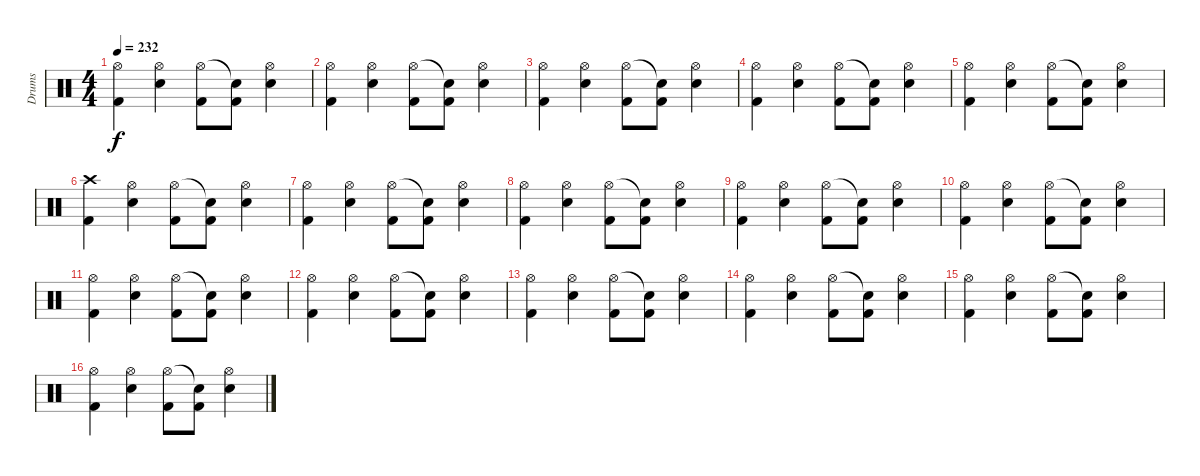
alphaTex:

\track ("Drums" "Drums") {instrument percussion}
\staff {score}
\articulation defaults
\ts (4 4)
\tempo 232
\clef neutral
\ks c
("Hi-Hat (open)" "Kick (hit) 2").4{dy f} ("Hi-Hat (open)" "Snare (hit) 2").4 ("Hi-Hat (open)" "Kick (hit) 2").8 ("Snare (hit)"{t} "Kick (hit) 2").8 ("Hi-Hat (open)" "Snare (hit) 2").4 |
("Hi-Hat (open)" "Kick (hit) 2").4 ("Hi-Hat (open)" "Snare (hit) 2").4 ("Hi-Hat (open)" "Kick (hit) 2").8 ("Snare (hit)"{t} "Kick (hit) 2").8 ("Hi-Hat (open)" "Snare (hit) 2").4 |
("Hi-Hat (open)" "Kick (hit) 2").4 ("Hi-Hat (open)" "Snare (hit) 2").4 ("Hi-Hat (open)" "Kick (hit) 2").8 ("Snare (hit)"{t} "Kick (hit) 2").8 ("Hi-Hat (open)" "Snare (hit) 2").4 |
("Hi-Hat (open)" "Kick (hit) 2").4 ("Hi-Hat (open)" "Snare (hit) 2").4 ("Hi-Hat (open)" "Kick (hit) 2").8 ("Snare (hit)"{t} "Kick (hit) 2").8 ("Hi-Hat (open)" "Snare (hit) 2").4 |
("Hi-Hat (open)" "Kick (hit) 2").4 ("Hi-Hat (open)" "Snare (hit) 2").4 ("Hi-Hat (open)" "Kick (hit) 2").8 ("Snare (hit)"{t} "Kick (hit) 2").8 ("Hi-Hat (open)" "Snare (hit) 2").4 |
("Crash high (hit)" "Kick (hit) 2").4 ("Hi-Hat (open)" "Snare (hit) 2").4 ("Hi-Hat (open)" "Kick (hit) 2").8 ("Snare (hit)"{t} "Kick (hit) 2").8 ("Hi-Hat (open)" "Snare (hit) 2").4 |
("Hi-Hat (open)" "Kick (hit) 2").4 ("Hi-Hat (open)" "Snare (hit) 2").4 ("Hi-Hat (open)" "Kick (hit) 2").8 ("Snare (hit)"{t} "Kick (hit) 2").8 ("Hi-Hat (open)" "Snare (hit) 2").4 |
("Hi-Hat (open)" "Kick (hit) 2").4 ("Hi-Hat (open)" "Snare (hit) 2").4 ("Hi-Hat (open)" "Kick (hit) 2").8 ("Snare (hit)"{t} "Kick (hit) 2").8 ("Hi-Hat (open)" "Snare (hit) 2").4 |
("Hi-Hat (open)" "Kick (hit) 2").4 ("Hi-Hat (open)" "Snare (hit) 2").4 ("Hi-Hat (open)" "Kick (hit) 2").8 ("Snare (hit)"{t} "Kick (hit) 2").8 ("Hi-Hat (open)" "Snare (hit) 2").4 |
("Hi-Hat (open)" "Kick (hit) 2").4 ("Hi-Hat (open)" "Snare (hit) 2").4 ("Hi-Hat (open)" "Kick (hit) 2").8 ("Snare (hit)"{t} "Kick (hit) 2").8 ("Hi-Hat (open)" "Snare (hit) 2").4 |
("Hi-Hat (open)" "Kick (hit) 2").4 ("Hi-Hat (open)" "Snare (hit) 2").4 ("Hi-Hat (open)" "Kick (hit) 2").8 ("Snare (hit)"{t} "Kick (hit) 2").8 ("Hi-Hat (open)" "Snare (hit) 2").4 |
("Hi-Hat (open)" "Kick (hit) 2").4 ("Hi-Hat (open)" "Snare (hit) 2").4 ("Hi-Hat (open)" "Kick (hit) 2").8 ("Snare (hit)"{t} "Kick (hit) 2").8 ("Hi-Hat (open)" "Snare (hit) 2").4 |
("Hi-Hat (open)" "Kick (hit) 2").4 ("Hi-Hat (open)" "Snare (hit) 2").4 ("Hi-Hat (open)" "Kick (hit) 2").8 ("Snare (hit)"{t} "Kick (hit) 2").8 ("Hi-Hat (open)" "Snare (hit) 2").4 |
("Hi-Hat (open)" "Kick (hit) 2").4 ("Hi-Hat (open)" "Snare (hit) 2").4 ("Hi-Hat (open)" "Kick (hit) 2").8 ("Snare (hit)"{t} "Kick (hit) 2").8 ("Hi-Hat (open)" "Snare (hit) 2").4 |
("Hi-Hat (open)" "Kick (hit) 2").4 ("Hi-Hat (open)" "Snare (hit) 2").4 ("Hi-Hat (open)" "Kick (hit) 2").8 ("Snare (hit)"{t} "Kick (hit) 2").8 ("Hi-Hat (open)" "Snare (hit) 2").4 |
("Hi-Hat (open)" "Kick (hit) 2").4 ("Hi-Hat (open)" "Snare (hit) 2").4 ("Hi-Hat (open)" "Kick (hit) 2").8 ("Snare (hit)"{t} "Kick (hit) 2").8 ("Hi-Hat (open)" "Snare (hit) 2").4
